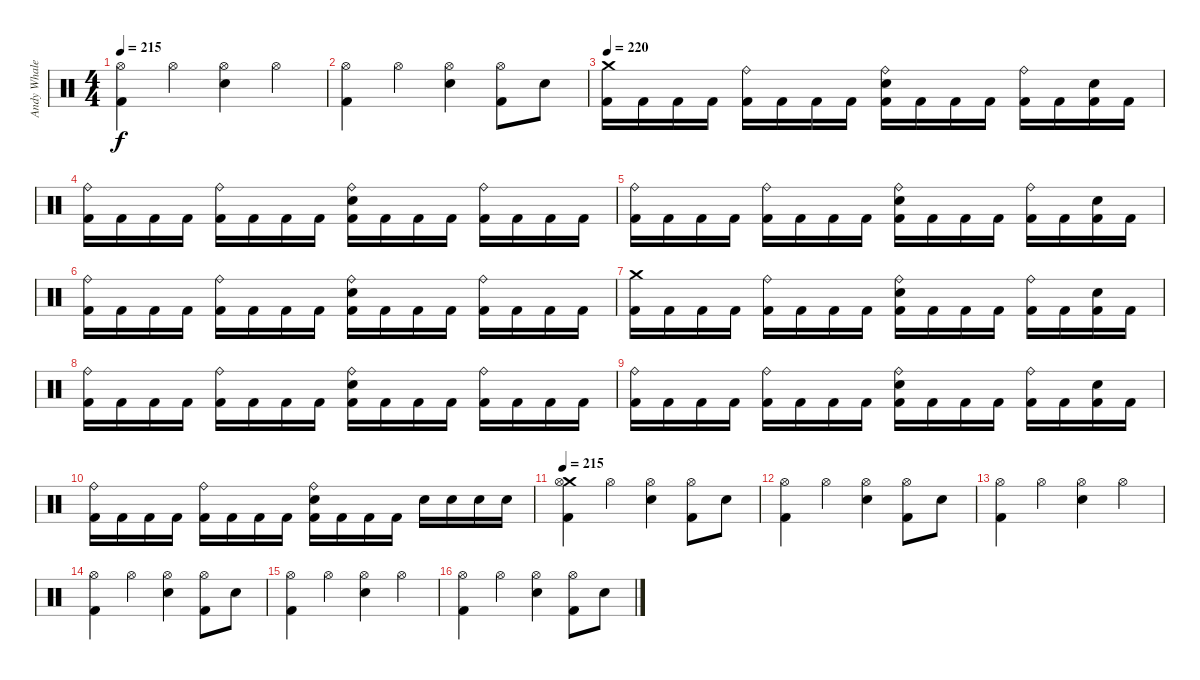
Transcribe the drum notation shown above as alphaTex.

\track ("Andy Whale" "Andy Whale") {instrument percussion}
\staff {score}
\articulation defaults
\ts (4 4)
\tempo 215
\clef neutral
\ks c
("Hi-Hat (open)" "Kick (hit) 2").4{dy f} "Hi-Hat (open)".4 ("Hi-Hat (open)" "Electric Snare (hit)").4 "Hi-Hat (open)".4 |
("Hi-Hat (open)" "Kick (hit) 2").4 "Hi-Hat (open)".4 ("Hi-Hat (open)" "Electric Snare (hit)").4 ("Hi-Hat (open)" "Kick (hit) 2").8 "Electric Snare (hit)".8 |
\tempo 220
("Crash medium (hit)" "Kick (hit) 2").16 "Kick (hit) 2".16 "Kick (hit) 2".16 "Kick (hit) 2".16 ("Ride (bell)" "Kick (hit) 2").16 "Kick (hit) 2".16 "Kick (hit) 2".16 "Kick (hit) 2".16 ("Ride (bell)" "Electric Snare (hit)" "Kick (hit) 2").16 "Kick (hit) 2".16 "Kick (hit) 2".16 "Kick (hit) 2".16 ("Ride (bell)" "Kick (hit) 2").16 "Kick (hit) 2".16 ("Electric Snare (hit)" "Kick (hit) 2").16 "Kick (hit) 2".16 |
("Ride (bell)" "Kick (hit) 2").16 "Kick (hit) 2".16 "Kick (hit) 2".16 "Kick (hit) 2".16 ("Ride (bell)" "Kick (hit) 2").16 "Kick (hit) 2".16 "Kick (hit) 2".16 "Kick (hit) 2".16 ("Ride (bell)" "Electric Snare (hit)" "Kick (hit) 2").16 "Kick (hit) 2".16 "Kick (hit) 2".16 "Kick (hit) 2".16 ("Ride (bell)" "Kick (hit) 2").16 "Kick (hit) 2".16 "Kick (hit) 2".16 "Kick (hit) 2".16 |
("Ride (bell)" "Kick (hit) 2").16 "Kick (hit) 2".16 "Kick (hit) 2".16 "Kick (hit) 2".16 ("Ride (bell)" "Kick (hit) 2").16 "Kick (hit) 2".16 "Kick (hit) 2".16 "Kick (hit) 2".16 ("Ride (bell)" "Electric Snare (hit)" "Kick (hit) 2").16 "Kick (hit) 2".16 "Kick (hit) 2".16 "Kick (hit) 2".16 ("Ride (bell)" "Kick (hit) 2").16 "Kick (hit) 2".16 ("Electric Snare (hit)" "Kick (hit) 2").16 "Kick (hit) 2".16 |
("Ride (bell)" "Kick (hit) 2").16 "Kick (hit) 2".16 "Kick (hit) 2".16 "Kick (hit) 2".16 ("Ride (bell)" "Kick (hit) 2").16 "Kick (hit) 2".16 "Kick (hit) 2".16 "Kick (hit) 2".16 ("Ride (bell)" "Electric Snare (hit)" "Kick (hit) 2").16 "Kick (hit) 2".16 "Kick (hit) 2".16 "Kick (hit) 2".16 ("Ride (bell)" "Kick (hit) 2").16 "Kick (hit) 2".16 "Kick (hit) 2".16 "Kick (hit) 2".16 |
("Crash medium (hit)" "Kick (hit) 2").16 "Kick (hit) 2".16 "Kick (hit) 2".16 "Kick (hit) 2".16 ("Ride (bell)" "Kick (hit) 2").16 "Kick (hit) 2".16 "Kick (hit) 2".16 "Kick (hit) 2".16 ("Ride (bell)" "Electric Snare (hit)" "Kick (hit) 2").16 "Kick (hit) 2".16 "Kick (hit) 2".16 "Kick (hit) 2".16 ("Ride (bell)" "Kick (hit) 2").16 "Kick (hit) 2".16 ("Electric Snare (hit)" "Kick (hit) 2").16 "Kick (hit) 2".16 |
("Ride (bell)" "Kick (hit) 2").16 "Kick (hit) 2".16 "Kick (hit) 2".16 "Kick (hit) 2".16 ("Ride (bell)" "Kick (hit) 2").16 "Kick (hit) 2".16 "Kick (hit) 2".16 "Kick (hit) 2".16 ("Ride (bell)" "Electric Snare (hit)" "Kick (hit) 2").16 "Kick (hit) 2".16 "Kick (hit) 2".16 "Kick (hit) 2".16 ("Ride (bell)" "Kick (hit) 2").16 "Kick (hit) 2".16 "Kick (hit) 2".16 "Kick (hit) 2".16 |
("Ride (bell)" "Kick (hit) 2").16 "Kick (hit) 2".16 "Kick (hit) 2".16 "Kick (hit) 2".16 ("Ride (bell)" "Kick (hit) 2").16 "Kick (hit) 2".16 "Kick (hit) 2".16 "Kick (hit) 2".16 ("Ride (bell)" "Electric Snare (hit)" "Kick (hit) 2").16 "Kick (hit) 2".16 "Kick (hit) 2".16 "Kick (hit) 2".16 ("Ride (bell)" "Kick (hit) 2").16 "Kick (hit) 2".16 ("Electric Snare (hit)" "Kick (hit) 2").16 "Kick (hit) 2".16 |
("Ride (bell)" "Kick (hit) 2").16 "Kick (hit) 2".16 "Kick (hit) 2".16 "Kick (hit) 2".16 ("Ride (bell)" "Kick (hit) 2").16 "Kick (hit) 2".16 "Kick (hit) 2".16 "Kick (hit) 2".16 ("Ride (bell)" "Electric Snare (hit)" "Kick (hit) 2").16 "Kick (hit) 2".16 "Kick (hit) 2".16 "Kick (hit) 2".16 "Electric Snare (hit)".16 "Electric Snare (hit)".16 "Electric Snare (hit)".16 "Electric Snare (hit)".16 |
\tempo 215
("Crash medium (hit)" "Hi-Hat (open)" "Kick (hit) 2").4 "Hi-Hat (open)".4 ("Hi-Hat (open)" "Electric Snare (hit)").4 ("Hi-Hat (open)" "Kick (hit) 2").8 "Electric Snare (hit)".8 |
("Hi-Hat (open)" "Kick (hit) 2").4 "Hi-Hat (open)".4 ("Hi-Hat (open)" "Electric Snare (hit)").4 ("Hi-Hat (open)" "Kick (hit) 2").8 "Electric Snare (hit)".8 |
("Hi-Hat (open)" "Kick (hit) 2").4 "Hi-Hat (open)".4 ("Hi-Hat (open)" "Electric Snare (hit)").4 "Hi-Hat (open)".4 |
("Hi-Hat (open)" "Kick (hit) 2").4 "Hi-Hat (open)".4 ("Hi-Hat (open)" "Electric Snare (hit)").4 ("Hi-Hat (open)" "Kick (hit) 2").8 "Electric Snare (hit)".8 |
("Hi-Hat (open)" "Kick (hit) 2").4 "Hi-Hat (open)".4 ("Hi-Hat (open)" "Electric Snare (hit)").4 "Hi-Hat (open)".4 |
("Hi-Hat (open)" "Kick (hit) 2").4 "Hi-Hat (open)".4 ("Hi-Hat (open)" "Electric Snare (hit)").4 ("Hi-Hat (open)" "Kick (hit) 2").8 "Electric Snare (hit)".8
